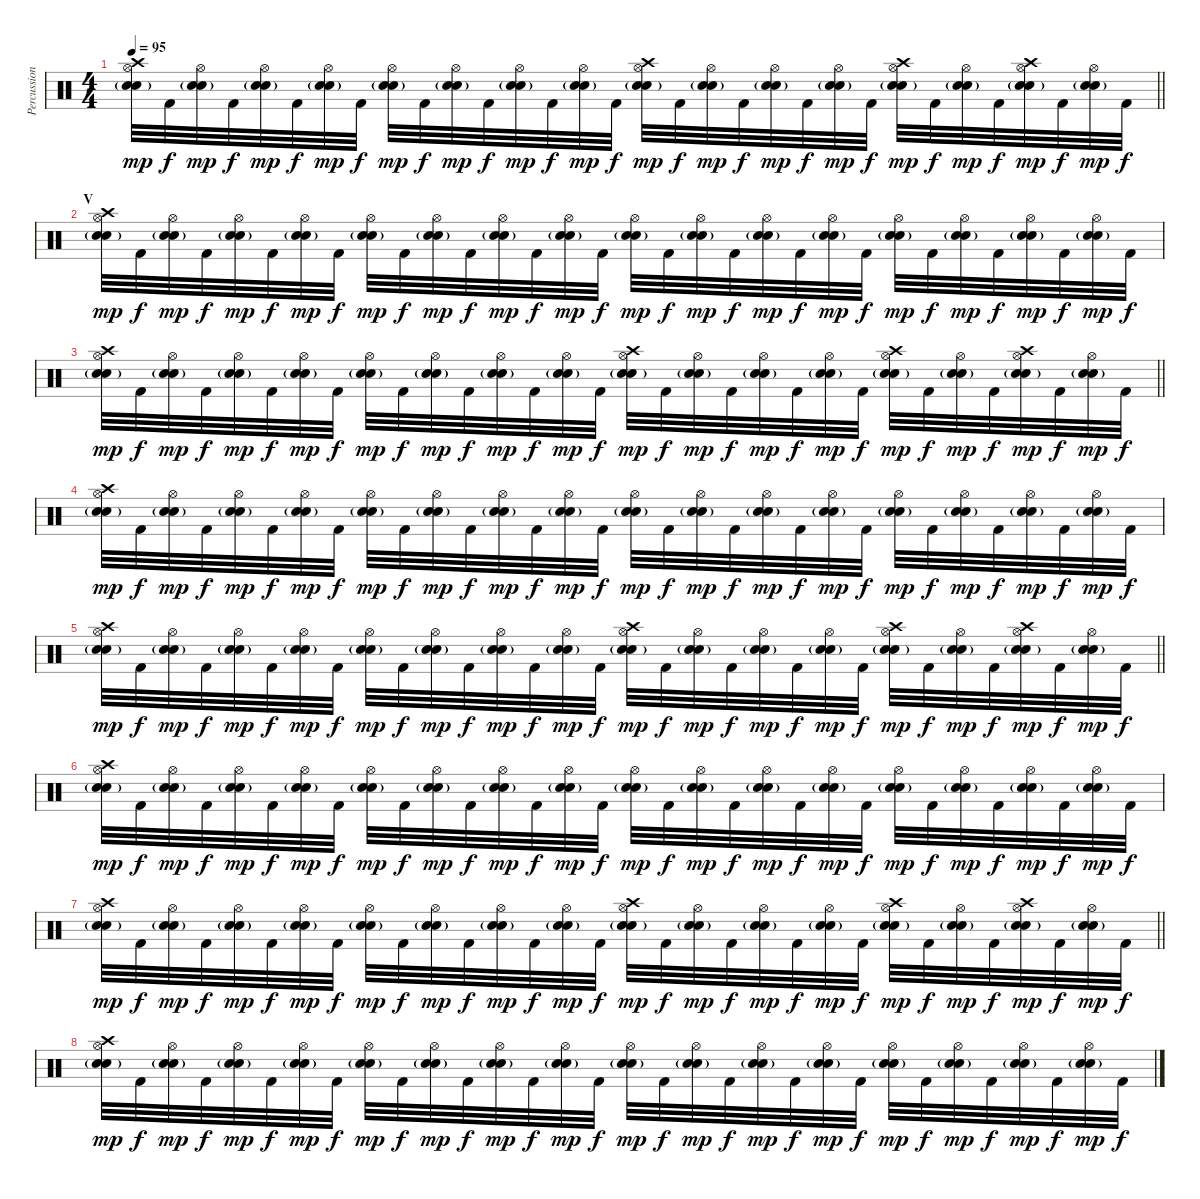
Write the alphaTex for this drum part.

\track ("Percussion" "Percussion") {instrument percussion}
\staff {score}
\articulation defaults
\ts (4 4)
\tempo 95
\clef neutral
\barLineRight lightlight
\ks c
("Crash high (hit)" "Electric Snare (hit)" "Snare (hit) 2"{g} "Hi-Hat (open)").32{dy mp} "Kick (hit) 2".32{dy f} ("Electric Snare (hit)" "Snare (hit) 2"{g} "Hi-Hat (open)").32{dy mp} "Kick (hit) 2".32{dy f} ("Electric Snare (hit)" "Snare (hit) 2"{g} "Hi-Hat (open)").32{dy mp} "Kick (hit) 2".32{dy f} ("Electric Snare (hit)" "Snare (hit) 2"{g} "Hi-Hat (open)").32{dy mp} "Kick (hit) 2".32{dy f} ("Electric Snare (hit)" "Snare (hit) 2"{g} "Hi-Hat (open)").32{dy mp} "Kick (hit) 2".32{dy f} ("Electric Snare (hit)" "Snare (hit) 2"{g} "Hi-Hat (open)").32{dy mp} "Kick (hit) 2".32{dy f} ("Electric Snare (hit)" "Snare (hit) 2"{g} "Hi-Hat (open)").32{dy mp} "Kick (hit) 2".32{dy f} ("Electric Snare (hit)" "Snare (hit) 2"{g} "Hi-Hat (open)").32{dy mp} "Kick (hit) 2".32{dy f} ("Crash high (hit)" "Electric Snare (hit)" "Snare (hit) 2"{g} "Hi-Hat (open)").32{dy mp} "Kick (hit) 2".32{dy f} ("Electric Snare (hit)" "Snare (hit) 2"{g} "Hi-Hat (open)").32{dy mp} "Kick (hit) 2".32{dy f} ("Electric Snare (hit)" "Snare (hit) 2"{g} "Hi-Hat (open)").32{dy mp} "Kick (hit) 2".32{dy f} ("Electric Snare (hit)" "Snare (hit) 2"{g} "Hi-Hat (open)").32{dy mp} "Kick (hit) 2".32{dy f} ("Crash high (hit)" "Electric Snare (hit)" "Snare (hit) 2"{g} "Hi-Hat (open)").32{dy mp} "Kick (hit) 2".32{dy f} ("Electric Snare (hit)" "Snare (hit) 2"{g} "Hi-Hat (open)").32{dy mp} "Kick (hit) 2".32{dy f} ("Crash high (hit)" "Electric Snare (hit)" "Snare (hit) 2"{g} "Hi-Hat (open)").32{dy mp} "Kick (hit) 2".32{dy f} ("Electric Snare (hit)" "Snare (hit) 2"{g} "Hi-Hat (open)").32{dy mp} "Kick (hit) 2".32{dy f} |
\section ("" "V")
("Crash high (hit)" "Electric Snare (hit)" "Snare (hit) 2"{g} "Hi-Hat (open)").32{dy mp} "Kick (hit) 2".32{dy f} ("Electric Snare (hit)" "Snare (hit) 2"{g} "Hi-Hat (open)").32{dy mp} "Kick (hit) 2".32{dy f} ("Electric Snare (hit)" "Snare (hit) 2"{g} "Hi-Hat (open)").32{dy mp} "Kick (hit) 2".32{dy f} ("Electric Snare (hit)" "Snare (hit) 2"{g} "Hi-Hat (open)").32{dy mp} "Kick (hit) 2".32{dy f} ("Electric Snare (hit)" "Snare (hit) 2"{g} "Hi-Hat (open)").32{dy mp} "Kick (hit) 2".32{dy f} ("Electric Snare (hit)" "Snare (hit) 2"{g} "Hi-Hat (open)").32{dy mp} "Kick (hit) 2".32{dy f} ("Electric Snare (hit)" "Snare (hit) 2"{g} "Hi-Hat (open)").32{dy mp} "Kick (hit) 2".32{dy f} ("Electric Snare (hit)" "Snare (hit) 2"{g} "Hi-Hat (open)").32{dy mp} "Kick (hit) 2".32{dy f} ("Electric Snare (hit)" "Snare (hit) 2"{g} "Hi-Hat (open)").32{dy mp} "Kick (hit) 2".32{dy f} ("Electric Snare (hit)" "Snare (hit) 2"{g} "Hi-Hat (open)").32{dy mp} "Kick (hit) 2".32{dy f} ("Electric Snare (hit)" "Snare (hit) 2"{g} "Hi-Hat (open)").32{dy mp} "Kick (hit) 2".32{dy f} ("Electric Snare (hit)" "Snare (hit) 2"{g} "Hi-Hat (open)").32{dy mp} "Kick (hit) 2".32{dy f} ("Electric Snare (hit)" "Snare (hit) 2"{g} "Hi-Hat (open)").32{dy mp} "Kick (hit) 2".32{dy f} ("Electric Snare (hit)" "Snare (hit) 2"{g} "Hi-Hat (open)").32{dy mp} "Kick (hit) 2".32{dy f} ("Electric Snare (hit)" "Snare (hit) 2"{g} "Hi-Hat (open)").32{dy mp} "Kick (hit) 2".32{dy f} ("Electric Snare (hit)" "Snare (hit) 2"{g} "Hi-Hat (open)").32{dy mp} "Kick (hit) 2".32{dy f} |
\barLineRight lightlight
("Crash high (hit)" "Electric Snare (hit)" "Snare (hit) 2"{g} "Hi-Hat (open)").32{dy mp} "Kick (hit) 2".32{dy f} ("Electric Snare (hit)" "Snare (hit) 2"{g} "Hi-Hat (open)").32{dy mp} "Kick (hit) 2".32{dy f} ("Electric Snare (hit)" "Snare (hit) 2"{g} "Hi-Hat (open)").32{dy mp} "Kick (hit) 2".32{dy f} ("Electric Snare (hit)" "Snare (hit) 2"{g} "Hi-Hat (open)").32{dy mp} "Kick (hit) 2".32{dy f} ("Electric Snare (hit)" "Snare (hit) 2"{g} "Hi-Hat (open)").32{dy mp} "Kick (hit) 2".32{dy f} ("Electric Snare (hit)" "Snare (hit) 2"{g} "Hi-Hat (open)").32{dy mp} "Kick (hit) 2".32{dy f} ("Electric Snare (hit)" "Snare (hit) 2"{g} "Hi-Hat (open)").32{dy mp} "Kick (hit) 2".32{dy f} ("Electric Snare (hit)" "Snare (hit) 2"{g} "Hi-Hat (open)").32{dy mp} "Kick (hit) 2".32{dy f} ("Crash high (hit)" "Electric Snare (hit)" "Snare (hit) 2"{g} "Hi-Hat (open)").32{dy mp} "Kick (hit) 2".32{dy f} ("Electric Snare (hit)" "Snare (hit) 2"{g} "Hi-Hat (open)").32{dy mp} "Kick (hit) 2".32{dy f} ("Electric Snare (hit)" "Snare (hit) 2"{g} "Hi-Hat (open)").32{dy mp} "Kick (hit) 2".32{dy f} ("Electric Snare (hit)" "Snare (hit) 2"{g} "Hi-Hat (open)").32{dy mp} "Kick (hit) 2".32{dy f} ("Crash high (hit)" "Electric Snare (hit)" "Snare (hit) 2"{g} "Hi-Hat (open)").32{dy mp} "Kick (hit) 2".32{dy f} ("Electric Snare (hit)" "Snare (hit) 2"{g} "Hi-Hat (open)").32{dy mp} "Kick (hit) 2".32{dy f} ("Crash high (hit)" "Electric Snare (hit)" "Snare (hit) 2"{g} "Hi-Hat (open)").32{dy mp} "Kick (hit) 2".32{dy f} ("Electric Snare (hit)" "Snare (hit) 2"{g} "Hi-Hat (open)").32{dy mp} "Kick (hit) 2".32{dy f} |
("Crash high (hit)" "Electric Snare (hit)" "Snare (hit) 2"{g} "Hi-Hat (open)").32{dy mp} "Kick (hit) 2".32{dy f} ("Electric Snare (hit)" "Snare (hit) 2"{g} "Hi-Hat (open)").32{dy mp} "Kick (hit) 2".32{dy f} ("Electric Snare (hit)" "Snare (hit) 2"{g} "Hi-Hat (open)").32{dy mp} "Kick (hit) 2".32{dy f} ("Electric Snare (hit)" "Snare (hit) 2"{g} "Hi-Hat (open)").32{dy mp} "Kick (hit) 2".32{dy f} ("Electric Snare (hit)" "Snare (hit) 2"{g} "Hi-Hat (open)").32{dy mp} "Kick (hit) 2".32{dy f} ("Electric Snare (hit)" "Snare (hit) 2"{g} "Hi-Hat (open)").32{dy mp} "Kick (hit) 2".32{dy f} ("Electric Snare (hit)" "Snare (hit) 2"{g} "Hi-Hat (open)").32{dy mp} "Kick (hit) 2".32{dy f} ("Electric Snare (hit)" "Snare (hit) 2"{g} "Hi-Hat (open)").32{dy mp} "Kick (hit) 2".32{dy f} ("Electric Snare (hit)" "Snare (hit) 2"{g} "Hi-Hat (open)").32{dy mp} "Kick (hit) 2".32{dy f} ("Electric Snare (hit)" "Snare (hit) 2"{g} "Hi-Hat (open)").32{dy mp} "Kick (hit) 2".32{dy f} ("Electric Snare (hit)" "Snare (hit) 2"{g} "Hi-Hat (open)").32{dy mp} "Kick (hit) 2".32{dy f} ("Electric Snare (hit)" "Snare (hit) 2"{g} "Hi-Hat (open)").32{dy mp} "Kick (hit) 2".32{dy f} ("Electric Snare (hit)" "Snare (hit) 2"{g} "Hi-Hat (open)").32{dy mp} "Kick (hit) 2".32{dy f} ("Electric Snare (hit)" "Snare (hit) 2"{g} "Hi-Hat (open)").32{dy mp} "Kick (hit) 2".32{dy f} ("Electric Snare (hit)" "Snare (hit) 2"{g} "Hi-Hat (open)").32{dy mp} "Kick (hit) 2".32{dy f} ("Electric Snare (hit)" "Snare (hit) 2"{g} "Hi-Hat (open)").32{dy mp} "Kick (hit) 2".32{dy f} |
\barLineRight lightlight
("Crash high (hit)" "Electric Snare (hit)" "Snare (hit) 2"{g} "Hi-Hat (open)").32{dy mp} "Kick (hit) 2".32{dy f} ("Electric Snare (hit)" "Snare (hit) 2"{g} "Hi-Hat (open)").32{dy mp} "Kick (hit) 2".32{dy f} ("Electric Snare (hit)" "Snare (hit) 2"{g} "Hi-Hat (open)").32{dy mp} "Kick (hit) 2".32{dy f} ("Electric Snare (hit)" "Snare (hit) 2"{g} "Hi-Hat (open)").32{dy mp} "Kick (hit) 2".32{dy f} ("Electric Snare (hit)" "Snare (hit) 2"{g} "Hi-Hat (open)").32{dy mp} "Kick (hit) 2".32{dy f} ("Electric Snare (hit)" "Snare (hit) 2"{g} "Hi-Hat (open)").32{dy mp} "Kick (hit) 2".32{dy f} ("Electric Snare (hit)" "Snare (hit) 2"{g} "Hi-Hat (open)").32{dy mp} "Kick (hit) 2".32{dy f} ("Electric Snare (hit)" "Snare (hit) 2"{g} "Hi-Hat (open)").32{dy mp} "Kick (hit) 2".32{dy f} ("Crash high (hit)" "Electric Snare (hit)" "Snare (hit) 2"{g} "Hi-Hat (open)").32{dy mp} "Kick (hit) 2".32{dy f} ("Electric Snare (hit)" "Snare (hit) 2"{g} "Hi-Hat (open)").32{dy mp} "Kick (hit) 2".32{dy f} ("Electric Snare (hit)" "Snare (hit) 2"{g} "Hi-Hat (open)").32{dy mp} "Kick (hit) 2".32{dy f} ("Electric Snare (hit)" "Snare (hit) 2"{g} "Hi-Hat (open)").32{dy mp} "Kick (hit) 2".32{dy f} ("Crash high (hit)" "Electric Snare (hit)" "Snare (hit) 2"{g} "Hi-Hat (open)").32{dy mp} "Kick (hit) 2".32{dy f} ("Electric Snare (hit)" "Snare (hit) 2"{g} "Hi-Hat (open)").32{dy mp} "Kick (hit) 2".32{dy f} ("Crash high (hit)" "Electric Snare (hit)" "Snare (hit) 2"{g} "Hi-Hat (open)").32{dy mp} "Kick (hit) 2".32{dy f} ("Electric Snare (hit)" "Snare (hit) 2"{g} "Hi-Hat (open)").32{dy mp} "Kick (hit) 2".32{dy f} |
("Crash high (hit)" "Electric Snare (hit)" "Snare (hit) 2"{g} "Hi-Hat (open)").32{dy mp} "Kick (hit) 2".32{dy f} ("Electric Snare (hit)" "Snare (hit) 2"{g} "Hi-Hat (open)").32{dy mp} "Kick (hit) 2".32{dy f} ("Electric Snare (hit)" "Snare (hit) 2"{g} "Hi-Hat (open)").32{dy mp} "Kick (hit) 2".32{dy f} ("Electric Snare (hit)" "Snare (hit) 2"{g} "Hi-Hat (open)").32{dy mp} "Kick (hit) 2".32{dy f} ("Electric Snare (hit)" "Snare (hit) 2"{g} "Hi-Hat (open)").32{dy mp} "Kick (hit) 2".32{dy f} ("Electric Snare (hit)" "Snare (hit) 2"{g} "Hi-Hat (open)").32{dy mp} "Kick (hit) 2".32{dy f} ("Electric Snare (hit)" "Snare (hit) 2"{g} "Hi-Hat (open)").32{dy mp} "Kick (hit) 2".32{dy f} ("Electric Snare (hit)" "Snare (hit) 2"{g} "Hi-Hat (open)").32{dy mp} "Kick (hit) 2".32{dy f} ("Electric Snare (hit)" "Snare (hit) 2"{g} "Hi-Hat (open)").32{dy mp} "Kick (hit) 2".32{dy f} ("Electric Snare (hit)" "Snare (hit) 2"{g} "Hi-Hat (open)").32{dy mp} "Kick (hit) 2".32{dy f} ("Electric Snare (hit)" "Snare (hit) 2"{g} "Hi-Hat (open)").32{dy mp} "Kick (hit) 2".32{dy f} ("Electric Snare (hit)" "Snare (hit) 2"{g} "Hi-Hat (open)").32{dy mp} "Kick (hit) 2".32{dy f} ("Electric Snare (hit)" "Snare (hit) 2"{g} "Hi-Hat (open)").32{dy mp} "Kick (hit) 2".32{dy f} ("Electric Snare (hit)" "Snare (hit) 2"{g} "Hi-Hat (open)").32{dy mp} "Kick (hit) 2".32{dy f} ("Electric Snare (hit)" "Snare (hit) 2"{g} "Hi-Hat (open)").32{dy mp} "Kick (hit) 2".32{dy f} ("Electric Snare (hit)" "Snare (hit) 2"{g} "Hi-Hat (open)").32{dy mp} "Kick (hit) 2".32{dy f} |
\barLineRight lightlight
("Crash high (hit)" "Electric Snare (hit)" "Snare (hit) 2"{g} "Hi-Hat (open)").32{dy mp} "Kick (hit) 2".32{dy f} ("Electric Snare (hit)" "Snare (hit) 2"{g} "Hi-Hat (open)").32{dy mp} "Kick (hit) 2".32{dy f} ("Electric Snare (hit)" "Snare (hit) 2"{g} "Hi-Hat (open)").32{dy mp} "Kick (hit) 2".32{dy f} ("Electric Snare (hit)" "Snare (hit) 2"{g} "Hi-Hat (open)").32{dy mp} "Kick (hit) 2".32{dy f} ("Electric Snare (hit)" "Snare (hit) 2"{g} "Hi-Hat (open)").32{dy mp} "Kick (hit) 2".32{dy f} ("Electric Snare (hit)" "Snare (hit) 2"{g} "Hi-Hat (open)").32{dy mp} "Kick (hit) 2".32{dy f} ("Electric Snare (hit)" "Snare (hit) 2"{g} "Hi-Hat (open)").32{dy mp} "Kick (hit) 2".32{dy f} ("Electric Snare (hit)" "Snare (hit) 2"{g} "Hi-Hat (open)").32{dy mp} "Kick (hit) 2".32{dy f} ("Crash high (hit)" "Electric Snare (hit)" "Snare (hit) 2"{g} "Hi-Hat (open)").32{dy mp} "Kick (hit) 2".32{dy f} ("Electric Snare (hit)" "Snare (hit) 2"{g} "Hi-Hat (open)").32{dy mp} "Kick (hit) 2".32{dy f} ("Electric Snare (hit)" "Snare (hit) 2"{g} "Hi-Hat (open)").32{dy mp} "Kick (hit) 2".32{dy f} ("Electric Snare (hit)" "Snare (hit) 2"{g} "Hi-Hat (open)").32{dy mp} "Kick (hit) 2".32{dy f} ("Crash high (hit)" "Electric Snare (hit)" "Snare (hit) 2"{g} "Hi-Hat (open)").32{dy mp} "Kick (hit) 2".32{dy f} ("Electric Snare (hit)" "Snare (hit) 2"{g} "Hi-Hat (open)").32{dy mp} "Kick (hit) 2".32{dy f} ("Crash high (hit)" "Electric Snare (hit)" "Snare (hit) 2"{g} "Hi-Hat (open)").32{dy mp} "Kick (hit) 2".32{dy f} ("Electric Snare (hit)" "Snare (hit) 2"{g} "Hi-Hat (open)").32{dy mp} "Kick (hit) 2".32{dy f} |
("Crash high (hit)" "Electric Snare (hit)" "Snare (hit) 2"{g} "Hi-Hat (open)").32{dy mp} "Kick (hit) 2".32{dy f} ("Electric Snare (hit)" "Snare (hit) 2"{g} "Hi-Hat (open)").32{dy mp} "Kick (hit) 2".32{dy f} ("Electric Snare (hit)" "Snare (hit) 2"{g} "Hi-Hat (open)").32{dy mp} "Kick (hit) 2".32{dy f} ("Electric Snare (hit)" "Snare (hit) 2"{g} "Hi-Hat (open)").32{dy mp} "Kick (hit) 2".32{dy f} ("Electric Snare (hit)" "Snare (hit) 2"{g} "Hi-Hat (open)").32{dy mp} "Kick (hit) 2".32{dy f} ("Electric Snare (hit)" "Snare (hit) 2"{g} "Hi-Hat (open)").32{dy mp} "Kick (hit) 2".32{dy f} ("Electric Snare (hit)" "Snare (hit) 2"{g} "Hi-Hat (open)").32{dy mp} "Kick (hit) 2".32{dy f} ("Electric Snare (hit)" "Snare (hit) 2"{g} "Hi-Hat (open)").32{dy mp} "Kick (hit) 2".32{dy f} ("Electric Snare (hit)" "Snare (hit) 2"{g} "Hi-Hat (open)").32{dy mp} "Kick (hit) 2".32{dy f} ("Electric Snare (hit)" "Snare (hit) 2"{g} "Hi-Hat (open)").32{dy mp} "Kick (hit) 2".32{dy f} ("Electric Snare (hit)" "Snare (hit) 2"{g} "Hi-Hat (open)").32{dy mp} "Kick (hit) 2".32{dy f} ("Electric Snare (hit)" "Snare (hit) 2"{g} "Hi-Hat (open)").32{dy mp} "Kick (hit) 2".32{dy f} ("Electric Snare (hit)" "Snare (hit) 2"{g} "Hi-Hat (open)").32{dy mp} "Kick (hit) 2".32{dy f} ("Electric Snare (hit)" "Snare (hit) 2"{g} "Hi-Hat (open)").32{dy mp} "Kick (hit) 2".32{dy f} ("Electric Snare (hit)" "Snare (hit) 2"{g} "Hi-Hat (open)").32{dy mp} "Kick (hit) 2".32{dy f} ("Electric Snare (hit)" "Snare (hit) 2"{g} "Hi-Hat (open)").32{dy mp} "Kick (hit) 2".32{dy f}
